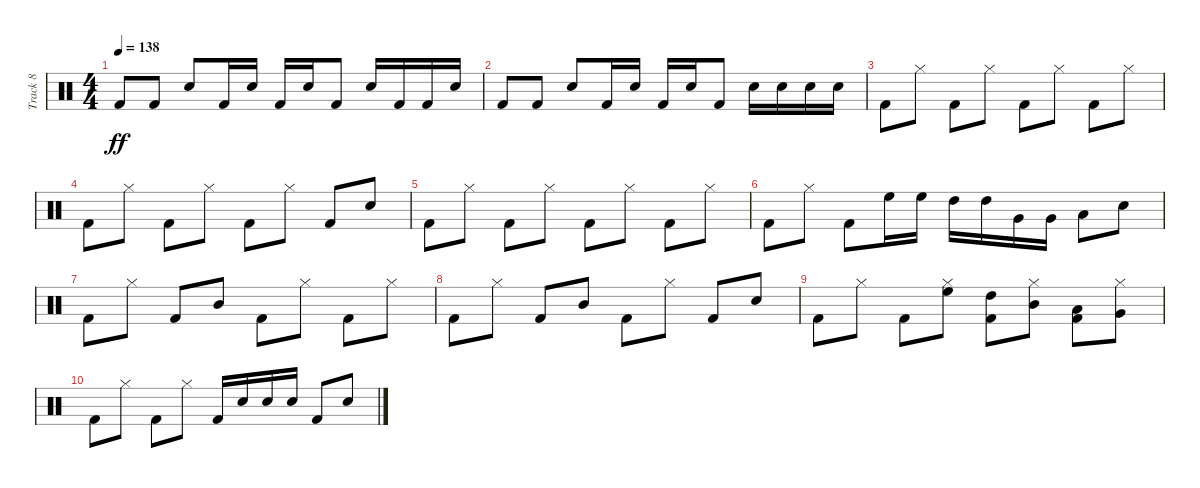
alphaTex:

\track ("Track 8" "Track 8") {instrument percussion}
\staff {score}
\articulation defaults
\ts (4 4)
\tempo 138
\clef neutral
\ks c "Kick (hit) 2".8{dy ff} "Kick (hit) 2".8 "Snare (hit) 2".8 "Kick (hit) 2".16 "Snare (hit) 2".16 "Kick (hit) 2".16 "Snare (hit) 2".16 "Kick (hit) 2".8 "Snare (hit) 2".16 "Kick (hit) 2".16 "Kick (hit) 2".16 "Snare (hit) 2".16
|
"Kick (hit) 2".8 "Kick (hit) 2".8 "Snare (hit) 2".8 "Kick (hit) 2".16 "Snare (hit) 2".16 "Kick (hit) 2".16 "Snare (hit) 2".16 "Kick (hit) 2".8 "Snare (hit) 2".16 "Snare (hit) 2".16 "Snare (hit) 2".16 "Snare (hit) 2".16 |
"Kick (hit) 2".8 "Hi-Hat (closed)".8 "Kick (hit) 2".8 "Hi-Hat (closed)".8 "Kick (hit) 2".8 "Hi-Hat (closed)".8 "Kick (hit) 2".8 "Hi-Hat (closed)".8 |
"Kick (hit) 2".8 "Hi-Hat (closed)".8 "Kick (hit) 2".8 "Hi-Hat (closed)".8 "Kick (hit) 2".8 "Hi-Hat (closed)".8 "Kick (hit) 2".8 "Snare (hit) 2".8 |
"Kick (hit) 2".8 "Hi-Hat (closed)".8 "Kick (hit) 2".8 "Hi-Hat (closed)".8 "Kick (hit) 2".8 "Hi-Hat (closed)".8 "Kick (hit) 2".8 "Hi-Hat (closed)".8 |
"Kick (hit) 2".8 "Hi-Hat (closed)".8 "Kick (hit) 2".8 "High Floor Tom (hit)".16 "High Floor Tom (hit)".16 "High Tom (hit)".16 "High Tom (hit)".16 "Very Low Tom (hit)".16 "Very Low Tom (hit)".16 "Low Tom (hit)".8 "Snare (hit) 2".8 |
"Kick (hit) 2".8 "Hi-Hat (closed)".8 "Kick (hit) 2".8 "Mid Tom (hit)".8 "Kick (hit) 2".8 "Hi-Hat (closed)".8 "Kick (hit) 2".8 "Hi-Hat (closed)".8 |
"Kick (hit) 2".8 "Hi-Hat (closed)".8 "Kick (hit) 2".8 "Mid Tom (hit)".8 "Kick (hit) 2".8 "Hi-Hat (closed)".8 "Kick (hit) 2".8 "Snare (hit) 2".8 |
"Kick (hit) 2".8 "Hi-Hat (closed)".8 "Kick (hit) 2".8 ("Hi-Hat (closed)" "High Floor Tom (hit)").8 ("Kick (hit) 2" "High Tom (hit)").8 ("Hi-Hat (closed)" "Mid Tom (hit)").8 ("Kick (hit) 2" "Low Tom (hit)").8 ("Hi-Hat (closed)" "Very Low Tom (hit)").8 |
"Kick (hit) 2".8 "Hi-Hat (closed)".8 "Kick (hit) 2".8 "Hi-Hat (closed)".8 "Kick (hit) 2".16 "Snare (hit) 2".16 "Snare (hit) 2".16 "Snare (hit) 2".16 "Kick (hit) 2".8 "Snare (hit) 2".8
